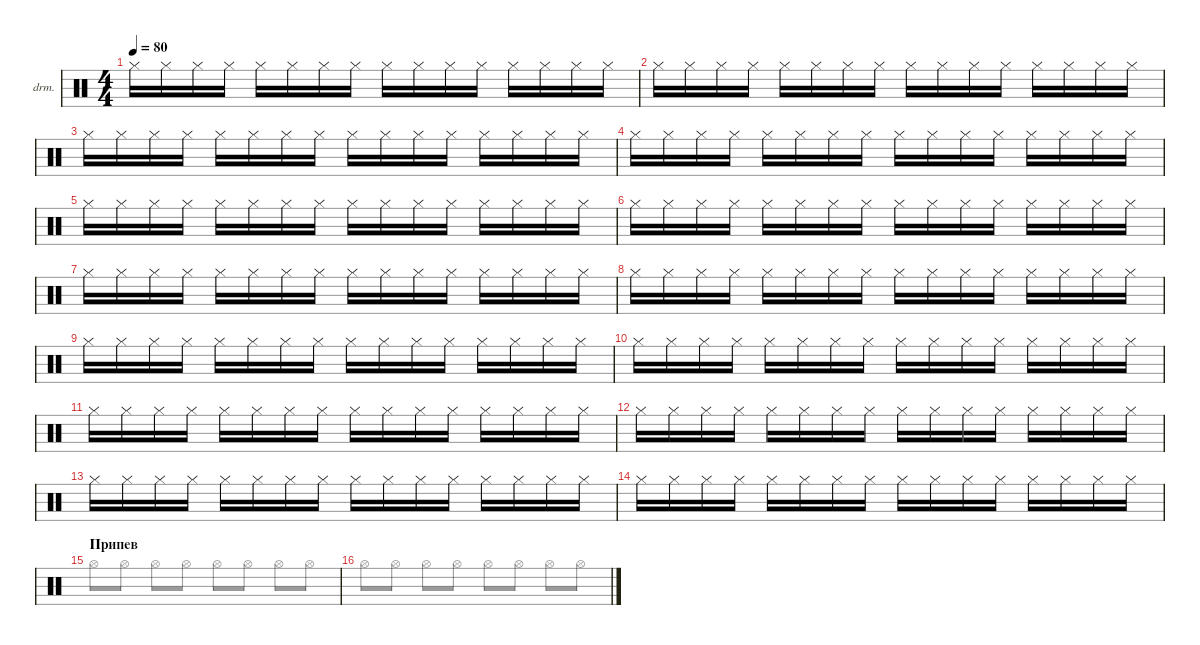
\defaultSystemsLayout 4
\hideDynamics
\bracketExtendMode nobrackets
\firstSystemTrackNameOrientation horizontal
\otherSystemsTrackNameOrientation horizontal
\track ("Drumkit" "drm.") {instrument percussion}
\staff {score}
\articulation defaults
\voice
\ts (4 4)
\tempo 80
\clef neutral
\ks c "Hi-Hat (closed)".16{dy mp beam Down} "Hi-Hat (closed)".16{beam Down} "Hi-Hat (closed)".16{beam Down} "Hi-Hat (closed)".16{beam Down} "Hi-Hat (closed)".16{beam Down} "Hi-Hat (closed)".16{beam Down} "Hi-Hat (closed)".16{beam Down} "Hi-Hat (closed)".16{beam Down} "Hi-Hat (closed)".16{beam Down} "Hi-Hat (closed)".16{beam Down} "Hi-Hat (closed)".16{beam Down} "Hi-Hat (closed)".16{beam Down} "Hi-Hat (closed)".16{beam Down} "Hi-Hat (closed)".16{beam Down} "Hi-Hat (closed)".16{beam Down} "Hi-Hat (closed)".16{beam Down}
|
"Hi-Hat (closed)".16{beam Down} "Hi-Hat (closed)".16{beam Down} "Hi-Hat (closed)".16{beam Down} "Hi-Hat (closed)".16{beam Down} "Hi-Hat (closed)".16{beam Down} "Hi-Hat (closed)".16{beam Down} "Hi-Hat (closed)".16{beam Down} "Hi-Hat (closed)".16{beam Down} "Hi-Hat (closed)".16{beam Down} "Hi-Hat (closed)".16{beam Down} "Hi-Hat (closed)".16{beam Down} "Hi-Hat (closed)".16{beam Down} "Hi-Hat (closed)".16{beam Down} "Hi-Hat (closed)".16{beam Down} "Hi-Hat (closed)".16{beam Down} "Hi-Hat (closed)".16{beam Down} |
"Hi-Hat (closed)".16{beam Down} "Hi-Hat (closed)".16{beam Down} "Hi-Hat (closed)".16{beam Down} "Hi-Hat (closed)".16{beam Down} "Hi-Hat (closed)".16{beam Down} "Hi-Hat (closed)".16{beam Down} "Hi-Hat (closed)".16{beam Down} "Hi-Hat (closed)".16{beam Down} "Hi-Hat (closed)".16{beam Down} "Hi-Hat (closed)".16{beam Down} "Hi-Hat (closed)".16{beam Down} "Hi-Hat (closed)".16{beam Down} "Hi-Hat (closed)".16{beam Down} "Hi-Hat (closed)".16{beam Down} "Hi-Hat (closed)".16{beam Down} "Hi-Hat (closed)".16{beam Down} |
"Hi-Hat (closed)".16{beam Down} "Hi-Hat (closed)".16{beam Down} "Hi-Hat (closed)".16{beam Down} "Hi-Hat (closed)".16{beam Down} "Hi-Hat (closed)".16{beam Down} "Hi-Hat (closed)".16{beam Down} "Hi-Hat (closed)".16{beam Down} "Hi-Hat (closed)".16{beam Down} "Hi-Hat (closed)".16{beam Down} "Hi-Hat (closed)".16{beam Down} "Hi-Hat (closed)".16{beam Down} "Hi-Hat (closed)".16{beam Down} "Hi-Hat (closed)".16{beam Down} "Hi-Hat (closed)".16{beam Down} "Hi-Hat (closed)".16{beam Down} "Hi-Hat (closed)".16{beam Down} |
"Hi-Hat (closed)".16{beam Down} "Hi-Hat (closed)".16{beam Down} "Hi-Hat (closed)".16{beam Down} "Hi-Hat (closed)".16{beam Down} "Hi-Hat (closed)".16{beam Down} "Hi-Hat (closed)".16{beam Down} "Hi-Hat (closed)".16{beam Down} "Hi-Hat (closed)".16{beam Down} "Hi-Hat (closed)".16{beam Down} "Hi-Hat (closed)".16{beam Down} "Hi-Hat (closed)".16{beam Down} "Hi-Hat (closed)".16{beam Down} "Hi-Hat (closed)".16{beam Down} "Hi-Hat (closed)".16{beam Down} "Hi-Hat (closed)".16{beam Down} "Hi-Hat (closed)".16{beam Down} |
"Hi-Hat (closed)".16{beam Down} "Hi-Hat (closed)".16{beam Down} "Hi-Hat (closed)".16{beam Down} "Hi-Hat (closed)".16{beam Down} "Hi-Hat (closed)".16{beam Down} "Hi-Hat (closed)".16{beam Down} "Hi-Hat (closed)".16{beam Down} "Hi-Hat (closed)".16{beam Down} "Hi-Hat (closed)".16{beam Down} "Hi-Hat (closed)".16{beam Down} "Hi-Hat (closed)".16{beam Down} "Hi-Hat (closed)".16{beam Down} "Hi-Hat (closed)".16{beam Down} "Hi-Hat (closed)".16{beam Down} "Hi-Hat (closed)".16{beam Down} "Hi-Hat (closed)".16{beam Down} |
"Hi-Hat (closed)".16{beam Down} "Hi-Hat (closed)".16{beam Down} "Hi-Hat (closed)".16{beam Down} "Hi-Hat (closed)".16{beam Down} "Hi-Hat (closed)".16{beam Down} "Hi-Hat (closed)".16{beam Down} "Hi-Hat (closed)".16{beam Down} "Hi-Hat (closed)".16{beam Down} "Hi-Hat (closed)".16{beam Down} "Hi-Hat (closed)".16{beam Down} "Hi-Hat (closed)".16{beam Down} "Hi-Hat (closed)".16{beam Down} "Hi-Hat (closed)".16{beam Down} "Hi-Hat (closed)".16{beam Down} "Hi-Hat (closed)".16{beam Down} "Hi-Hat (closed)".16{beam Down} |
"Hi-Hat (closed)".16{beam Down} "Hi-Hat (closed)".16{beam Down} "Hi-Hat (closed)".16{beam Down} "Hi-Hat (closed)".16{beam Down} "Hi-Hat (closed)".16{beam Down} "Hi-Hat (closed)".16{beam Down} "Hi-Hat (closed)".16{beam Down} "Hi-Hat (closed)".16{beam Down} "Hi-Hat (closed)".16{beam Down} "Hi-Hat (closed)".16{beam Down} "Hi-Hat (closed)".16{beam Down} "Hi-Hat (closed)".16{beam Down} "Hi-Hat (closed)".16{beam Down} "Hi-Hat (closed)".16{beam Down} "Hi-Hat (closed)".16{beam Down} "Hi-Hat (closed)".16{beam Down} |
"Hi-Hat (closed)".16{beam Down} "Hi-Hat (closed)".16{beam Down} "Hi-Hat (closed)".16{beam Down} "Hi-Hat (closed)".16{beam Down} "Hi-Hat (closed)".16{beam Down} "Hi-Hat (closed)".16{beam Down} "Hi-Hat (closed)".16{beam Down} "Hi-Hat (closed)".16{beam Down} "Hi-Hat (closed)".16{beam Down} "Hi-Hat (closed)".16{beam Down} "Hi-Hat (closed)".16{beam Down} "Hi-Hat (closed)".16{beam Down} "Hi-Hat (closed)".16{beam Down} "Hi-Hat (closed)".16{beam Down} "Hi-Hat (closed)".16{beam Down} "Hi-Hat (closed)".16{beam Down} |
"Hi-Hat (closed)".16{beam Down} "Hi-Hat (closed)".16{beam Down} "Hi-Hat (closed)".16{beam Down} "Hi-Hat (closed)".16{beam Down} "Hi-Hat (closed)".16{beam Down} "Hi-Hat (closed)".16{beam Down} "Hi-Hat (closed)".16{beam Down} "Hi-Hat (closed)".16{beam Down} "Hi-Hat (closed)".16{beam Down} "Hi-Hat (closed)".16{beam Down} "Hi-Hat (closed)".16{beam Down} "Hi-Hat (closed)".16{beam Down} "Hi-Hat (closed)".16{beam Down} "Hi-Hat (closed)".16{beam Down} "Hi-Hat (closed)".16{beam Down} "Hi-Hat (closed)".16{beam Down} |
"Hi-Hat (closed)".16{beam Down} "Hi-Hat (closed)".16{beam Down} "Hi-Hat (closed)".16{beam Down} "Hi-Hat (closed)".16{beam Down} "Hi-Hat (closed)".16{beam Down} "Hi-Hat (closed)".16{beam Down} "Hi-Hat (closed)".16{beam Down} "Hi-Hat (closed)".16{beam Down} "Hi-Hat (closed)".16{beam Down} "Hi-Hat (closed)".16{beam Down} "Hi-Hat (closed)".16{beam Down} "Hi-Hat (closed)".16{beam Down} "Hi-Hat (closed)".16{beam Down} "Hi-Hat (closed)".16{beam Down} "Hi-Hat (closed)".16{beam Down} "Hi-Hat (closed)".16{beam Down} |
"Hi-Hat (closed)".16{beam Down} "Hi-Hat (closed)".16{beam Down} "Hi-Hat (closed)".16{beam Down} "Hi-Hat (closed)".16{beam Down} "Hi-Hat (closed)".16{beam Down} "Hi-Hat (closed)".16{beam Down} "Hi-Hat (closed)".16{beam Down} "Hi-Hat (closed)".16{beam Down} "Hi-Hat (closed)".16{beam Down} "Hi-Hat (closed)".16{beam Down} "Hi-Hat (closed)".16{beam Down} "Hi-Hat (closed)".16{beam Down} "Hi-Hat (closed)".16{beam Down} "Hi-Hat (closed)".16{beam Down} "Hi-Hat (closed)".16{beam Down} "Hi-Hat (closed)".16{beam Down} |
"Hi-Hat (closed)".16{beam Down} "Hi-Hat (closed)".16{beam Down} "Hi-Hat (closed)".16{beam Down} "Hi-Hat (closed)".16{beam Down} "Hi-Hat (closed)".16{beam Down} "Hi-Hat (closed)".16{beam Down} "Hi-Hat (closed)".16{beam Down} "Hi-Hat (closed)".16{beam Down} "Hi-Hat (closed)".16{beam Down} "Hi-Hat (closed)".16{beam Down} "Hi-Hat (closed)".16{beam Down} "Hi-Hat (closed)".16{beam Down} "Hi-Hat (closed)".16{beam Down} "Hi-Hat (closed)".16{beam Down} "Hi-Hat (closed)".16{beam Down} "Hi-Hat (closed)".16{beam Down} |
"Hi-Hat (closed)".16{beam Down} "Hi-Hat (closed)".16{beam Down} "Hi-Hat (closed)".16{beam Down} "Hi-Hat (closed)".16{beam Down} "Hi-Hat (closed)".16{beam Down} "Hi-Hat (closed)".16{beam Down} "Hi-Hat (closed)".16{beam Down} "Hi-Hat (closed)".16{beam Down} "Hi-Hat (closed)".16{beam Down} "Hi-Hat (closed)".16{beam Down} "Hi-Hat (closed)".16{beam Down} "Hi-Hat (closed)".16{beam Down} "Hi-Hat (closed)".16{beam Down} "Hi-Hat (closed)".16{beam Down} "Hi-Hat (closed)".16{beam Down} "Hi-Hat (closed)".16{beam Down} |
\section ("" "Припев")
|
\voice
\clef neutral
\ottava regular
\simile none
\ks c
|
|
|
|
|
|
|
|
|
|
|
|
|
|
"Hi-Hat (open)".8{beam Down} "Hi-Hat (open)".8{beam Down} "Hi-Hat (open)".8{beam Down} "Hi-Hat (open)".8{beam Down} "Hi-Hat (open)".8{beam Down} "Hi-Hat (open)".8{beam Down} "Hi-Hat (open)".8{beam Down} "Hi-Hat (open)".8{beam Down} |
"Hi-Hat (open)".8{beam Down} "Hi-Hat (open)".8{beam Down} "Hi-Hat (open)".8{beam Down} "Hi-Hat (open)".8{beam Down} "Hi-Hat (open)".8{beam Down} "Hi-Hat (open)".8{beam Down} "Hi-Hat (open)".8{beam Down} "Hi-Hat (open)".8{beam Down}
